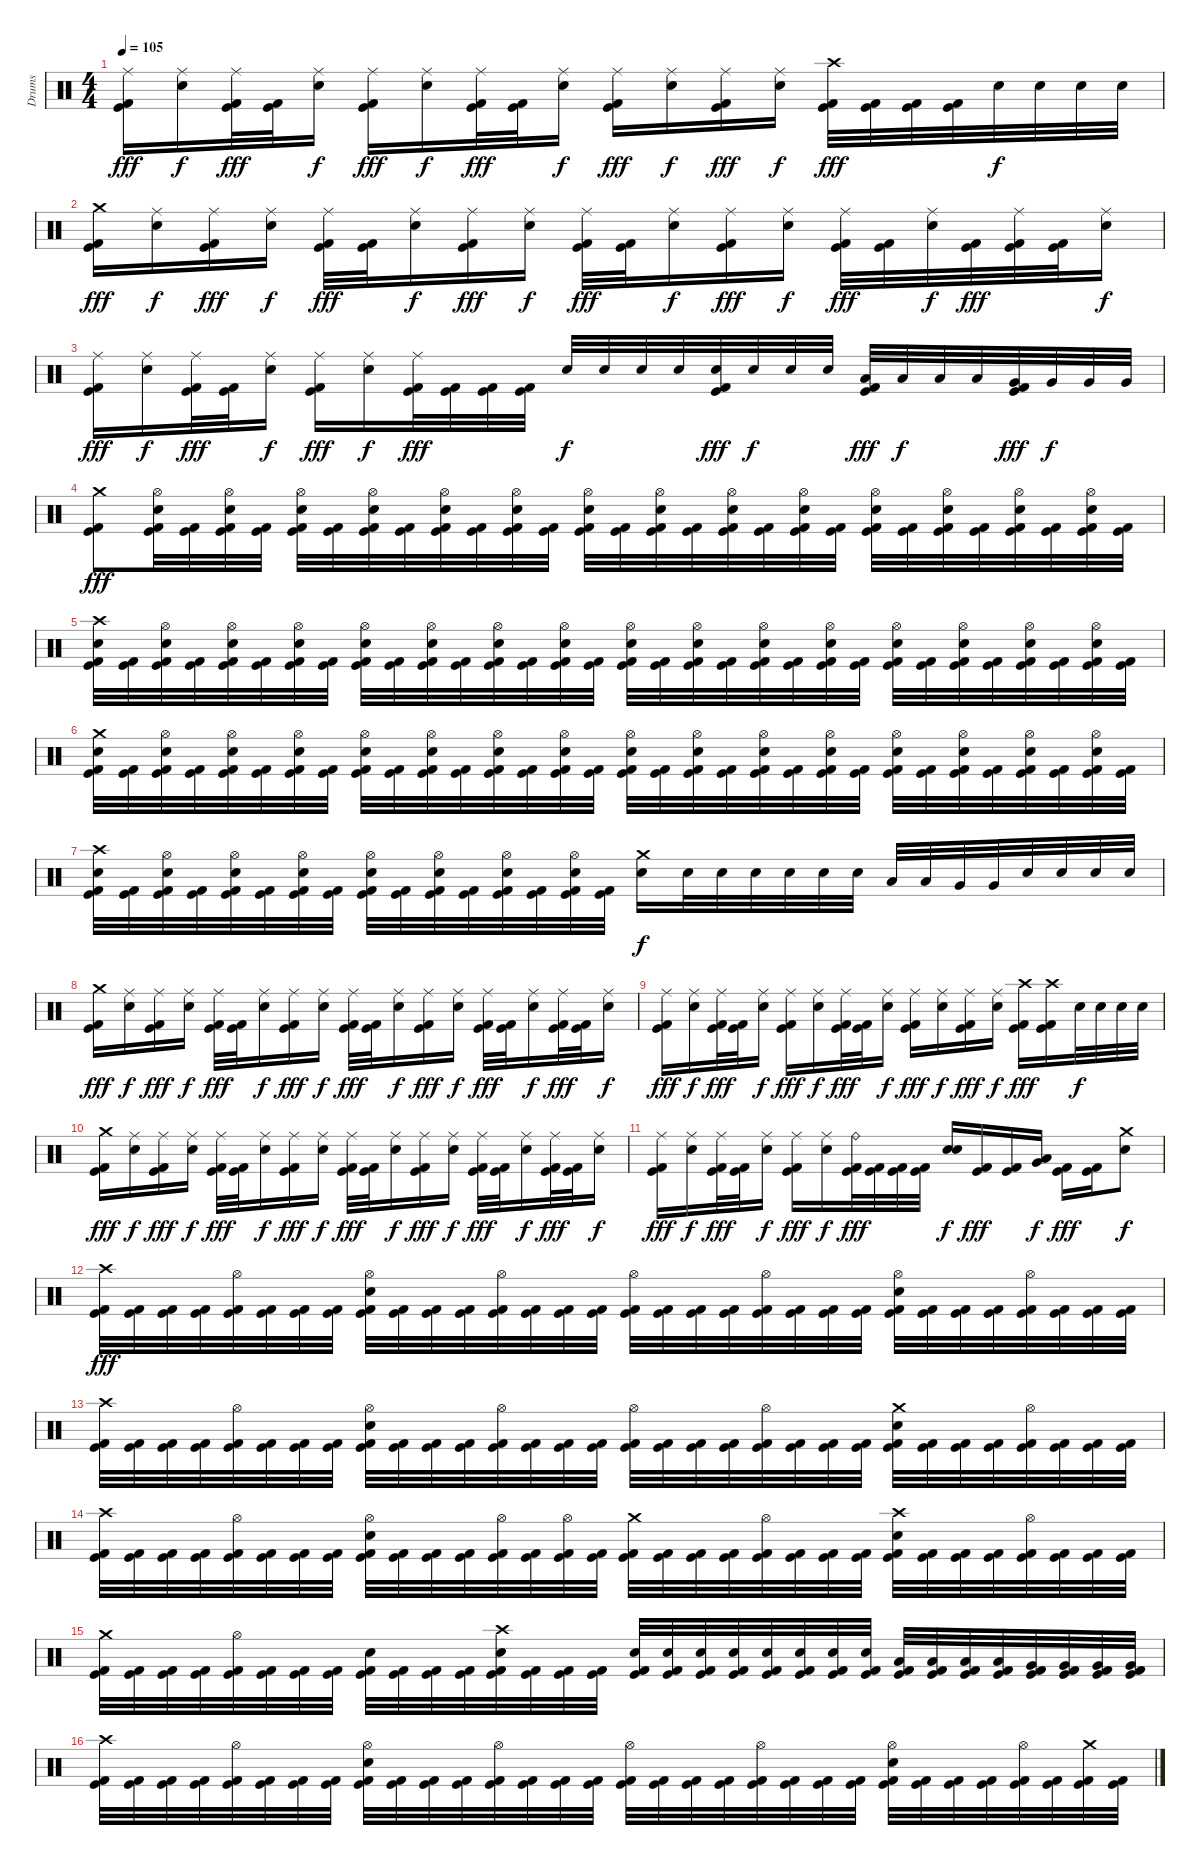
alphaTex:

\track ("Drums" "Drums") {instrument percussion}
\staff {score}
\articulation defaults
\ts (4 4)
\tempo 105
\clef neutral
\ks c
("Ride (middle)" "Kick (hit)" "Kick (hit) 2").16{dy fff} ("Ride (middle)" "Electric Snare (hit)").16{dy f} ("Ride (middle)" "Kick (hit)" "Kick (hit) 2").32{dy fff} ("Kick (hit)" "Kick (hit) 2").32 ("Ride (middle)" "Electric Snare (hit)").16{dy f} ("Ride (middle)" "Kick (hit)" "Kick (hit) 2").16{dy fff} ("Ride (middle)" "Electric Snare (hit)").16{dy f} ("Ride (middle)" "Kick (hit)" "Kick (hit) 2").32{dy fff} ("Kick (hit)" "Kick (hit) 2").32 ("Ride (middle)" "Electric Snare (hit)").16{dy f} ("Ride (middle)" "Kick (hit)" "Kick (hit) 2").16{dy fff} ("Ride (middle)" "Electric Snare (hit)").16{dy f} ("Ride (middle)" "Kick (hit)" "Kick (hit) 2").16{dy fff} ("Ride (middle)" "Electric Snare (hit)").16{dy f} ("Crash high (hit)" "Kick (hit)" "Kick (hit) 2").32{dy fff} ("Kick (hit)" "Kick (hit) 2").32 ("Kick (hit)" "Kick (hit) 2").32 ("Kick (hit)" "Kick (hit) 2").32 "Electric Snare (hit)".32{dy f} "Electric Snare (hit)".32 "Electric Snare (hit)".32 "Electric Snare (hit)".32 |
("Crash medium (hit)" "Kick (hit)" "Kick (hit) 2").16{dy fff} ("Ride (middle)" "Electric Snare (hit)").16{dy f} ("Ride (middle)" "Kick (hit)" "Kick (hit) 2").16{dy fff} ("Ride (middle)" "Electric Snare (hit)").16{dy f} ("Ride (middle)" "Kick (hit)" "Kick (hit) 2").32{dy fff} ("Kick (hit)" "Kick (hit) 2").32 ("Ride (middle)" "Electric Snare (hit)").16{dy f} ("Ride (middle)" "Kick (hit)" "Kick (hit) 2").16{dy fff} ("Ride (middle)" "Electric Snare (hit)").16{dy f} ("Ride (middle)" "Kick (hit)" "Kick (hit) 2").32{dy fff} ("Kick (hit)" "Kick (hit) 2").32 ("Ride (middle)" "Electric Snare (hit)").16{dy f} ("Ride (middle)" "Kick (hit)" "Kick (hit) 2").16{dy fff} ("Ride (middle)" "Electric Snare (hit)").16{dy f} ("Ride (middle)" "Kick (hit)" "Kick (hit) 2").32{dy fff} ("Kick (hit)" "Kick (hit) 2").32 ("Ride (middle)" "Electric Snare (hit)").32{dy f} ("Kick (hit)" "Kick (hit) 2").32{dy fff} ("Ride (middle)" "Kick (hit)" "Kick (hit) 2").32 ("Kick (hit)" "Kick (hit) 2").32 ("Ride (middle)" "Electric Snare (hit)").16{dy f} |
("Ride (middle)" "Kick (hit)" "Kick (hit) 2").16{dy fff} ("Ride (middle)" "Electric Snare (hit)").16{dy f} ("Ride (middle)" "Kick (hit)" "Kick (hit) 2").32{dy fff} ("Kick (hit)" "Kick (hit) 2").32 ("Ride (middle)" "Electric Snare (hit)").16{dy f} ("Ride (middle)" "Kick (hit)" "Kick (hit) 2").16{dy fff} ("Ride (middle)" "Electric Snare (hit)").16{dy f} ("Ride (middle)" "Kick (hit)" "Kick (hit) 2").32{dy fff} ("Kick (hit)" "Kick (hit) 2").32 ("Kick (hit)" "Kick (hit) 2").32 ("Kick (hit)" "Kick (hit) 2").32 "Electric Snare (hit)".32{dy f} "Electric Snare (hit)".32 "Electric Snare (hit)".32 "Electric Snare (hit)".32 ("Electric Snare (hit)" "Kick (hit)" "Kick (hit) 2").32{dy fff} "Electric Snare (hit)".32{dy f} "Electric Snare (hit)".32 "Electric Snare (hit)".32 ("Low Tom (hit)" "Kick (hit)" "Kick (hit) 2").32{dy fff} "Low Tom (hit)".32{dy f} "Low Tom (hit)".32 "Low Tom (hit)".32 ("Very Low Tom (hit)" "Kick (hit)" "Kick (hit) 2").32{dy fff} "Very Low Tom (hit)".32{dy f} "Very Low Tom (hit)".32 "Very Low Tom (hit)".32 |
("Crash medium (hit)" "Kick (hit)" "Kick (hit) 2").8{dy fff} ("Hi-Hat (open)" "Electric Snare (hit)" "Kick (hit)" "Kick (hit) 2").32 ("Kick (hit)" "Kick (hit) 2").32 ("Hi-Hat (open)" "Electric Snare (hit)" "Kick (hit)" "Kick (hit) 2").32 ("Kick (hit)" "Kick (hit) 2").32 ("Hi-Hat (open)" "Electric Snare (hit)" "Kick (hit)" "Kick (hit) 2").32 ("Kick (hit)" "Kick (hit) 2").32 ("Hi-Hat (open)" "Electric Snare (hit)" "Kick (hit)" "Kick (hit) 2").32 ("Kick (hit)" "Kick (hit) 2").32 ("Hi-Hat (open)" "Electric Snare (hit)" "Kick (hit)" "Kick (hit) 2").32 ("Kick (hit)" "Kick (hit) 2").32 ("Hi-Hat (open)" "Electric Snare (hit)" "Kick (hit)" "Kick (hit) 2").32 ("Kick (hit)" "Kick (hit) 2").32 ("Hi-Hat (open)" "Electric Snare (hit)" "Kick (hit)" "Kick (hit) 2").32 ("Kick (hit)" "Kick (hit) 2").32 ("Hi-Hat (open)" "Electric Snare (hit)" "Kick (hit)" "Kick (hit) 2").32 ("Kick (hit)" "Kick (hit) 2").32 ("Hi-Hat (open)" "Electric Snare (hit)" "Kick (hit)" "Kick (hit) 2").32 ("Kick (hit)" "Kick (hit) 2").32 ("Hi-Hat (open)" "Electric Snare (hit)" "Kick (hit)" "Kick (hit) 2").32 ("Kick (hit)" "Kick (hit) 2").32 ("Hi-Hat (open)" "Electric Snare (hit)" "Kick (hit)" "Kick (hit) 2").32 ("Kick (hit)" "Kick (hit) 2").32 ("Hi-Hat (open)" "Electric Snare (hit)" "Kick (hit)" "Kick (hit) 2").32 ("Kick (hit)" "Kick (hit) 2").32 ("Hi-Hat (open)" "Electric Snare (hit)" "Kick (hit)" "Kick (hit) 2").32 ("Kick (hit)" "Kick (hit) 2").32 ("Hi-Hat (open)" "Electric Snare (hit)" "Kick (hit)" "Kick (hit) 2").32 ("Kick (hit)" "Kick (hit) 2").32 |
("Crash high (hit)" "Electric Snare (hit)" "Kick (hit)" "Kick (hit) 2").32 ("Kick (hit)" "Kick (hit) 2").32 ("Hi-Hat (open)" "Electric Snare (hit)" "Kick (hit)" "Kick (hit) 2").32 ("Kick (hit)" "Kick (hit) 2").32 ("Hi-Hat (open)" "Electric Snare (hit)" "Kick (hit)" "Kick (hit) 2").32 ("Kick (hit)" "Kick (hit) 2").32 ("Hi-Hat (open)" "Electric Snare (hit)" "Kick (hit)" "Kick (hit) 2").32 ("Kick (hit)" "Kick (hit) 2").32 ("Hi-Hat (open)" "Electric Snare (hit)" "Kick (hit)" "Kick (hit) 2").32 ("Kick (hit)" "Kick (hit) 2").32 ("Hi-Hat (open)" "Electric Snare (hit)" "Kick (hit)" "Kick (hit) 2").32 ("Kick (hit)" "Kick (hit) 2").32 ("Hi-Hat (open)" "Electric Snare (hit)" "Kick (hit)" "Kick (hit) 2").32 ("Kick (hit)" "Kick (hit) 2").32 ("Hi-Hat (open)" "Electric Snare (hit)" "Kick (hit)" "Kick (hit) 2").32 ("Kick (hit)" "Kick (hit) 2").32 ("Hi-Hat (open)" "Electric Snare (hit)" "Kick (hit)" "Kick (hit) 2").32 ("Kick (hit)" "Kick (hit) 2").32 ("Hi-Hat (open)" "Electric Snare (hit)" "Kick (hit)" "Kick (hit) 2").32 ("Kick (hit)" "Kick (hit) 2").32 ("Hi-Hat (open)" "Electric Snare (hit)" "Kick (hit)" "Kick (hit) 2").32 ("Kick (hit)" "Kick (hit) 2").32 ("Hi-Hat (open)" "Electric Snare (hit)" "Kick (hit)" "Kick (hit) 2").32 ("Kick (hit)" "Kick (hit) 2").32 ("Hi-Hat (open)" "Electric Snare (hit)" "Kick (hit)" "Kick (hit) 2").32 ("Kick (hit)" "Kick (hit) 2").32 ("Hi-Hat (open)" "Electric Snare (hit)" "Kick (hit)" "Kick (hit) 2").32 ("Kick (hit)" "Kick (hit) 2").32 ("Hi-Hat (open)" "Electric Snare (hit)" "Kick (hit)" "Kick (hit) 2").32 ("Kick (hit)" "Kick (hit) 2").32 ("Hi-Hat (open)" "Electric Snare (hit)" "Kick (hit)" "Kick (hit) 2").32 ("Kick (hit)" "Kick (hit) 2").32 |
("Crash medium (hit)" "Electric Snare (hit)" "Kick (hit)" "Kick (hit) 2").32 ("Kick (hit)" "Kick (hit) 2").32 ("Hi-Hat (open)" "Electric Snare (hit)" "Kick (hit)" "Kick (hit) 2").32 ("Kick (hit)" "Kick (hit) 2").32 ("Hi-Hat (open)" "Electric Snare (hit)" "Kick (hit)" "Kick (hit) 2").32 ("Kick (hit)" "Kick (hit) 2").32 ("Hi-Hat (open)" "Electric Snare (hit)" "Kick (hit)" "Kick (hit) 2").32 ("Kick (hit)" "Kick (hit) 2").32 ("Hi-Hat (open)" "Electric Snare (hit)" "Kick (hit)" "Kick (hit) 2").32 ("Kick (hit)" "Kick (hit) 2").32 ("Hi-Hat (open)" "Electric Snare (hit)" "Kick (hit)" "Kick (hit) 2").32 ("Kick (hit)" "Kick (hit) 2").32 ("Hi-Hat (open)" "Electric Snare (hit)" "Kick (hit)" "Kick (hit) 2").32 ("Kick (hit)" "Kick (hit) 2").32 ("Hi-Hat (open)" "Electric Snare (hit)" "Kick (hit)" "Kick (hit) 2").32 ("Kick (hit)" "Kick (hit) 2").32 ("Hi-Hat (open)" "Electric Snare (hit)" "Kick (hit)" "Kick (hit) 2").32 ("Kick (hit)" "Kick (hit) 2").32 ("Hi-Hat (open)" "Electric Snare (hit)" "Kick (hit)" "Kick (hit) 2").32 ("Kick (hit)" "Kick (hit) 2").32 ("Hi-Hat (open)" "Electric Snare (hit)" "Kick (hit)" "Kick (hit) 2").32 ("Kick (hit)" "Kick (hit) 2").32 ("Hi-Hat (open)" "Electric Snare (hit)" "Kick (hit)" "Kick (hit) 2").32 ("Kick (hit)" "Kick (hit) 2").32 ("Hi-Hat (open)" "Electric Snare (hit)" "Kick (hit)" "Kick (hit) 2").32 ("Kick (hit)" "Kick (hit) 2").32 ("Hi-Hat (open)" "Electric Snare (hit)" "Kick (hit)" "Kick (hit) 2").32 ("Kick (hit)" "Kick (hit) 2").32 ("Hi-Hat (open)" "Electric Snare (hit)" "Kick (hit)" "Kick (hit) 2").32 ("Kick (hit)" "Kick (hit) 2").32 ("Hi-Hat (open)" "Electric Snare (hit)" "Kick (hit)" "Kick (hit) 2").32 ("Kick (hit)" "Kick (hit) 2").32 |
("Crash high (hit)" "Electric Snare (hit)" "Kick (hit)" "Kick (hit) 2").32 ("Kick (hit)" "Kick (hit) 2").32 ("Hi-Hat (open)" "Electric Snare (hit)" "Kick (hit)" "Kick (hit) 2").32 ("Kick (hit)" "Kick (hit) 2").32 ("Hi-Hat (open)" "Electric Snare (hit)" "Kick (hit)" "Kick (hit) 2").32 ("Kick (hit)" "Kick (hit) 2").32 ("Hi-Hat (open)" "Electric Snare (hit)" "Kick (hit)" "Kick (hit) 2").32 ("Kick (hit)" "Kick (hit) 2").32 ("Hi-Hat (open)" "Electric Snare (hit)" "Kick (hit)" "Kick (hit) 2").32 ("Kick (hit)" "Kick (hit) 2").32 ("Hi-Hat (open)" "Electric Snare (hit)" "Kick (hit)" "Kick (hit) 2").32 ("Kick (hit)" "Kick (hit) 2").32 ("Hi-Hat (open)" "Electric Snare (hit)" "Kick (hit)" "Kick (hit) 2").32 ("Kick (hit)" "Kick (hit) 2").32 ("Hi-Hat (open)" "Electric Snare (hit)" "Kick (hit)" "Kick (hit) 2").32 ("Kick (hit)" "Kick (hit) 2").32 ("Crash medium (hit)" "Electric Snare (hit)").16{dy f} "Electric Snare (hit)".32 "Electric Snare (hit)".32 "Electric Snare (hit)".32 "Electric Snare (hit)".32 "Electric Snare (hit)".32 "Electric Snare (hit)".32 "Low Tom (hit)".32 "Low Tom (hit)".32 "Very Low Tom (hit)".32 "Very Low Tom (hit)".32 "Electric Snare (hit)".32 "Electric Snare (hit)".32 "Electric Snare (hit)".32 "Electric Snare (hit)".32 |
("Crash medium (hit)" "Kick (hit)" "Kick (hit) 2").16{dy fff} ("Ride (middle)" "Electric Snare (hit)").16{dy f} ("Ride (middle)" "Kick (hit)" "Kick (hit) 2").16{dy fff} ("Ride (middle)" "Electric Snare (hit)").16{dy f} ("Ride (middle)" "Kick (hit)" "Kick (hit) 2").32{dy fff} ("Kick (hit)" "Kick (hit) 2").32 ("Ride (middle)" "Electric Snare (hit)").16{dy f} ("Ride (middle)" "Kick (hit)" "Kick (hit) 2").16{dy fff} ("Ride (middle)" "Electric Snare (hit)").16{dy f} ("Ride (middle)" "Kick (hit)" "Kick (hit) 2").32{dy fff} ("Kick (hit)" "Kick (hit) 2").32 ("Ride (middle)" "Electric Snare (hit)").16{dy f} ("Ride (middle)" "Kick (hit)" "Kick (hit) 2").16{dy fff} ("Ride (middle)" "Electric Snare (hit)").16{dy f} ("Ride (middle)" "Kick (hit)" "Kick (hit) 2").32{dy fff} ("Kick (hit)" "Kick (hit) 2").32 ("Ride (middle)" "Electric Snare (hit)").16{dy f} ("Ride (middle)" "Kick (hit)" "Kick (hit) 2").32{dy fff} ("Kick (hit)" "Kick (hit) 2").32 ("Ride (middle)" "Electric Snare (hit)").16{dy f} |
("Ride (middle)" "Kick (hit)" "Kick (hit) 2").16{dy fff} ("Ride (middle)" "Electric Snare (hit)").16{dy f} ("Ride (middle)" "Kick (hit)" "Kick (hit) 2").32{dy fff} ("Kick (hit)" "Kick (hit) 2").32 ("Ride (middle)" "Electric Snare (hit)").16{dy f} ("Ride (middle)" "Kick (hit)" "Kick (hit) 2").16{dy fff} ("Ride (middle)" "Electric Snare (hit)").16{dy f} ("Ride (middle)" "Kick (hit)" "Kick (hit) 2").32{dy fff} ("Kick (hit)" "Kick (hit) 2").32 ("Ride (middle)" "Electric Snare (hit)").16{dy f} ("Ride (middle)" "Kick (hit)" "Kick (hit) 2").16{dy fff} ("Ride (middle)" "Electric Snare (hit)").16{dy f} ("Ride (middle)" "Kick (hit)" "Kick (hit) 2").16{dy fff} ("Ride (middle)" "Electric Snare (hit)").16{dy f} ("Crash high (hit)" "Kick (hit)" "Kick (hit) 2").16{dy fff} ("Crash high (hit)" "Kick (hit)" "Kick (hit) 2").16 "Electric Snare (hit)".32{dy f} "Electric Snare (hit)".32 "Electric Snare (hit)".32 "Electric Snare (hit)".32 |
("Crash medium (hit)" "Kick (hit)" "Kick (hit) 2").16{dy fff} ("Ride (middle)" "Electric Snare (hit)").16{dy f} ("Ride (middle)" "Kick (hit)" "Kick (hit) 2").16{dy fff} ("Ride (middle)" "Electric Snare (hit)").16{dy f} ("Ride (middle)" "Kick (hit)" "Kick (hit) 2").32{dy fff} ("Kick (hit)" "Kick (hit) 2").32 ("Ride (middle)" "Electric Snare (hit)").16{dy f} ("Ride (middle)" "Kick (hit)" "Kick (hit) 2").16{dy fff} ("Ride (middle)" "Electric Snare (hit)").16{dy f} ("Ride (middle)" "Kick (hit)" "Kick (hit) 2").32{dy fff} ("Kick (hit)" "Kick (hit) 2").32 ("Ride (middle)" "Electric Snare (hit)").16{dy f} ("Ride (middle)" "Kick (hit)" "Kick (hit) 2").16{dy fff} ("Ride (middle)" "Electric Snare (hit)").16{dy f} ("Ride (middle)" "Kick (hit)" "Kick (hit) 2").32{dy fff} ("Kick (hit)" "Kick (hit) 2").32 ("Ride (middle)" "Electric Snare (hit)").16{dy f} ("Ride (middle)" "Kick (hit)" "Kick (hit) 2").32{dy fff} ("Kick (hit)" "Kick (hit) 2").32 ("Ride (middle)" "Electric Snare (hit)").16{dy f} |
("Ride (middle)" "Kick (hit)" "Kick (hit) 2").16{dy fff} ("Ride (middle)" "Electric Snare (hit)").16{dy f} ("Ride (middle)" "Kick (hit)" "Kick (hit) 2").32{dy fff} ("Kick (hit)" "Kick (hit) 2").32 ("Ride (middle)" "Electric Snare (hit)").16{dy f} ("Ride (middle)" "Kick (hit)" "Kick (hit) 2").16{dy fff} ("Ride (middle)" "Electric Snare (hit)").16{dy f} ("Ride (bell)" "Kick (hit)" "Kick (hit) 2").32{dy fff} ("Kick (hit)" "Kick (hit) 2").32 ("Kick (hit)" "Kick (hit) 2").32 ("Kick (hit)" "Kick (hit) 2").32 ("Electric Snare (hit)" "Electric Snare (hit)").16{bu 30 dy f} ("Kick (hit)" "Kick (hit) 2").16{dy fff} ("Kick (hit)" "Kick (hit) 2").16 ("Low Floor Tom (hit)" "Very Low Tom (hit)").16{bu 30 dy f} ("Kick (hit)" "Kick (hit) 2").16{dy fff} ("Kick (hit)" "Kick (hit) 2").16 ("Crash medium (hit)" "Electric Snare (hit)").8{dy f} |
("Crash high (hit)" "Kick (hit)" "Kick (hit) 2").32{dy fff} ("Kick (hit)" "Kick (hit) 2").32 ("Kick (hit)" "Kick (hit) 2").32 ("Kick (hit)" "Kick (hit) 2").32 ("Hi-Hat (open)" "Kick (hit)" "Kick (hit) 2").32 ("Kick (hit)" "Kick (hit) 2").32 ("Kick (hit)" "Kick (hit) 2").32 ("Kick (hit)" "Kick (hit) 2").32 ("Hi-Hat (open)" "Electric Snare (hit)" "Kick (hit)" "Kick (hit) 2").32 ("Kick (hit)" "Kick (hit) 2").32 ("Kick (hit)" "Kick (hit) 2").32 ("Kick (hit)" "Kick (hit) 2").32 ("Hi-Hat (open)" "Kick (hit)" "Kick (hit) 2").32 ("Kick (hit)" "Kick (hit) 2").32 ("Kick (hit)" "Kick (hit) 2").32 ("Kick (hit)" "Kick (hit) 2").32 ("Hi-Hat (open)" "Kick (hit)" "Kick (hit) 2").32 ("Kick (hit)" "Kick (hit) 2").32 ("Kick (hit)" "Kick (hit) 2").32 ("Kick (hit)" "Kick (hit) 2").32 ("Hi-Hat (open)" "Kick (hit)" "Kick (hit) 2").32 ("Kick (hit)" "Kick (hit) 2").32 ("Kick (hit)" "Kick (hit) 2").32 ("Kick (hit)" "Kick (hit) 2").32 ("Hi-Hat (open)" "Electric Snare (hit)" "Kick (hit)" "Kick (hit) 2").32 ("Kick (hit)" "Kick (hit) 2").32 ("Kick (hit)" "Kick (hit) 2").32 ("Kick (hit)" "Kick (hit) 2").32 ("Hi-Hat (open)" "Kick (hit)" "Kick (hit) 2").32 ("Kick (hit)" "Kick (hit) 2").32 ("Kick (hit)" "Kick (hit) 2").32 ("Kick (hit)" "Kick (hit) 2").32 |
("Crash high (hit)" "Kick (hit)" "Kick (hit) 2").32 ("Kick (hit)" "Kick (hit) 2").32 ("Kick (hit)" "Kick (hit) 2").32 ("Kick (hit)" "Kick (hit) 2").32 ("Hi-Hat (open)" "Kick (hit)" "Kick (hit) 2").32 ("Kick (hit)" "Kick (hit) 2").32 ("Kick (hit)" "Kick (hit) 2").32 ("Kick (hit)" "Kick (hit) 2").32 ("Hi-Hat (open)" "Electric Snare (hit)" "Kick (hit)" "Kick (hit) 2").32 ("Kick (hit)" "Kick (hit) 2").32 ("Kick (hit)" "Kick (hit) 2").32 ("Kick (hit)" "Kick (hit) 2").32 ("Hi-Hat (open)" "Kick (hit)" "Kick (hit) 2").32 ("Kick (hit)" "Kick (hit) 2").32 ("Kick (hit)" "Kick (hit) 2").32 ("Kick (hit)" "Kick (hit) 2").32 ("Hi-Hat (open)" "Kick (hit)" "Kick (hit) 2").32 ("Kick (hit)" "Kick (hit) 2").32 ("Kick (hit)" "Kick (hit) 2").32 ("Kick (hit)" "Kick (hit) 2").32 ("Hi-Hat (open)" "Kick (hit)" "Kick (hit) 2").32 ("Kick (hit)" "Kick (hit) 2").32 ("Kick (hit)" "Kick (hit) 2").32 ("Kick (hit)" "Kick (hit) 2").32 ("Crash medium (hit)" "Electric Snare (hit)" "Kick (hit)" "Kick (hit) 2").32 ("Kick (hit)" "Kick (hit) 2").32 ("Kick (hit)" "Kick (hit) 2").32 ("Kick (hit)" "Kick (hit) 2").32 ("Hi-Hat (open)" "Kick (hit)" "Kick (hit) 2").32 ("Kick (hit)" "Kick (hit) 2").32 ("Kick (hit)" "Kick (hit) 2").32 ("Kick (hit)" "Kick (hit) 2").32 |
("Crash high (hit)" "Kick (hit)" "Kick (hit) 2").32 ("Kick (hit)" "Kick (hit) 2").32 ("Kick (hit)" "Kick (hit) 2").32 ("Kick (hit)" "Kick (hit) 2").32 ("Hi-Hat (open)" "Kick (hit)" "Kick (hit) 2").32 ("Kick (hit)" "Kick (hit) 2").32 ("Kick (hit)" "Kick (hit) 2").32 ("Kick (hit)" "Kick (hit) 2").32 ("Hi-Hat (open)" "Electric Snare (hit)" "Kick (hit)" "Kick (hit) 2").32 ("Kick (hit)" "Kick (hit) 2").32 ("Kick (hit)" "Kick (hit) 2").32 ("Kick (hit)" "Kick (hit) 2").32 ("Hi-Hat (open)" "Kick (hit)" "Kick (hit) 2").32 ("Kick (hit)" "Kick (hit) 2").32 ("Hi-Hat (open)" "Kick (hit)" "Kick (hit) 2").32 ("Kick (hit)" "Kick (hit) 2").32 ("Crash medium (hit)" "Kick (hit)" "Kick (hit) 2").32 ("Kick (hit)" "Kick (hit) 2").32 ("Kick (hit)" "Kick (hit) 2").32 ("Kick (hit)" "Kick (hit) 2").32 ("Hi-Hat (open)" "Kick (hit)" "Kick (hit) 2").32 ("Kick (hit)" "Kick (hit) 2").32 ("Kick (hit)" "Kick (hit) 2").32 ("Kick (hit)" "Kick (hit) 2").32 ("Crash high (hit)" "Electric Snare (hit)" "Kick (hit)" "Kick (hit) 2").32 ("Kick (hit)" "Kick (hit) 2").32 ("Kick (hit)" "Kick (hit) 2").32 ("Kick (hit)" "Kick (hit) 2").32 ("Hi-Hat (open)" "Kick (hit)" "Kick (hit) 2").32 ("Kick (hit)" "Kick (hit) 2").32 ("Kick (hit)" "Kick (hit) 2").32 ("Kick (hit)" "Kick (hit) 2").32 |
("Crash medium (hit)" "Kick (hit)" "Kick (hit) 2").32 ("Kick (hit)" "Kick (hit) 2").32 ("Kick (hit)" "Kick (hit) 2").32 ("Kick (hit)" "Kick (hit) 2").32 ("Hi-Hat (open)" "Kick (hit)" "Kick (hit) 2").32 ("Kick (hit)" "Kick (hit) 2").32 ("Kick (hit)" "Kick (hit) 2").32 ("Kick (hit)" "Kick (hit) 2").32 ("Electric Snare (hit)" "Kick (hit)" "Kick (hit) 2").32 ("Kick (hit)" "Kick (hit) 2").32 ("Kick (hit)" "Kick (hit) 2").32 ("Kick (hit)" "Kick (hit) 2").32 ("Crash high (hit)" "Electric Snare (hit)" "Kick (hit)" "Kick (hit) 2").32 ("Kick (hit)" "Kick (hit) 2").32 ("Kick (hit)" "Kick (hit) 2").32 ("Kick (hit)" "Kick (hit) 2").32 ("Electric Snare (hit)" "Kick (hit)" "Kick (hit) 2").32 ("Electric Snare (hit)" "Kick (hit)" "Kick (hit) 2").32 ("Electric Snare (hit)" "Kick (hit)" "Kick (hit) 2").32 ("Electric Snare (hit)" "Kick (hit)" "Kick (hit) 2").32 ("Electric Snare (hit)" "Kick (hit)" "Kick (hit) 2").32 ("Electric Snare (hit)" "Kick (hit)" "Kick (hit) 2").32 ("Electric Snare (hit)" "Kick (hit)" "Kick (hit) 2").32 ("Electric Snare (hit)" "Kick (hit)" "Kick (hit) 2").32 ("Low Tom (hit)" "Kick (hit)" "Kick (hit) 2").32 ("Low Tom (hit)" "Kick (hit)" "Kick (hit) 2").32 ("Low Tom (hit)" "Kick (hit)" "Kick (hit) 2").32 ("Low Tom (hit)" "Kick (hit)" "Kick (hit) 2").32 ("Very Low Tom (hit)" "Kick (hit)" "Kick (hit) 2").32 ("Very Low Tom (hit)" "Kick (hit)" "Kick (hit) 2").32 ("Very Low Tom (hit)" "Kick (hit)" "Kick (hit) 2").32 ("Very Low Tom (hit)" "Kick (hit)" "Kick (hit) 2").32 |
("Crash high (hit)" "Kick (hit)" "Kick (hit) 2").32 ("Kick (hit)" "Kick (hit) 2").32 ("Kick (hit)" "Kick (hit) 2").32 ("Kick (hit)" "Kick (hit) 2").32 ("Hi-Hat (open)" "Kick (hit)" "Kick (hit) 2").32 ("Kick (hit)" "Kick (hit) 2").32 ("Kick (hit)" "Kick (hit) 2").32 ("Kick (hit)" "Kick (hit) 2").32 ("Hi-Hat (open)" "Electric Snare (hit)" "Kick (hit)" "Kick (hit) 2").32 ("Kick (hit)" "Kick (hit) 2").32 ("Kick (hit)" "Kick (hit) 2").32 ("Kick (hit)" "Kick (hit) 2").32 ("Hi-Hat (open)" "Kick (hit)" "Kick (hit) 2").32 ("Kick (hit)" "Kick (hit) 2").32 ("Kick (hit)" "Kick (hit) 2").32 ("Kick (hit)" "Kick (hit) 2").32 ("Hi-Hat (open)" "Kick (hit)" "Kick (hit) 2").32 ("Kick (hit)" "Kick (hit) 2").32 ("Kick (hit)" "Kick (hit) 2").32 ("Kick (hit)" "Kick (hit) 2").32 ("Hi-Hat (open)" "Kick (hit)" "Kick (hit) 2").32 ("Kick (hit)" "Kick (hit) 2").32 ("Kick (hit)" "Kick (hit) 2").32 ("Kick (hit)" "Kick (hit) 2").32 ("Hi-Hat (open)" "Electric Snare (hit)" "Kick (hit)" "Kick (hit) 2").32 ("Kick (hit)" "Kick (hit) 2").32 ("Kick (hit)" "Kick (hit) 2").32 ("Kick (hit)" "Kick (hit) 2").32 ("Hi-Hat (open)" "Kick (hit)" "Kick (hit) 2").32 ("Kick (hit)" "Kick (hit) 2").32 ("Crash medium (hit)" "Kick (hit)" "Kick (hit) 2").32 ("Kick (hit)" "Kick (hit) 2").32
